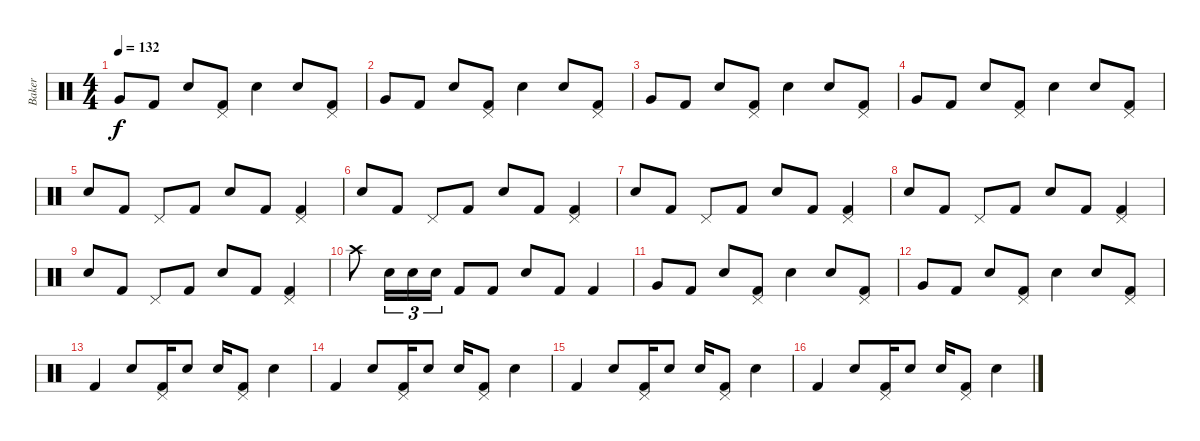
\track ("Baker" "Baker") {instrument percussion}
\staff {score}
\articulation defaults
\ts (4 4)
\tempo 132
\clef neutral
\ks c "Very Low Tom (hit)".8{dy f} "Kick (hit) 2".8 "Snare (hit) 2".8
("Pedal Hi-Hat (hit)" "Kick (hit) 2").8 "Snare (hit) 2".4 "Snare (hit) 2".8 ("Pedal Hi-Hat (hit)" "Kick (hit) 2").8 |
"Very Low Tom (hit)".8 "Kick (hit) 2".8 "Snare (hit) 2".8 ("Pedal Hi-Hat (hit)" "Kick (hit) 2").8 "Snare (hit) 2".4 "Snare (hit) 2".8 ("Pedal Hi-Hat (hit)" "Kick (hit) 2").8 |
"Very Low Tom (hit)".8 "Kick (hit) 2".8 "Snare (hit) 2".8 ("Pedal Hi-Hat (hit)" "Kick (hit) 2").8 "Snare (hit) 2".4 "Snare (hit) 2".8 ("Pedal Hi-Hat (hit)" "Kick (hit) 2").8 |
"Very Low Tom (hit)".8 "Kick (hit) 2".8 "Snare (hit) 2".8 ("Pedal Hi-Hat (hit)" "Kick (hit) 2").8 "Snare (hit) 2".4 "Snare (hit) 2".8 ("Pedal Hi-Hat (hit)" "Kick (hit) 2").8 |
"Snare (hit) 2".8 "Kick (hit) 2".8 "Pedal Hi-Hat (hit)".8 "Kick (hit) 2".8 "Snare (hit) 2".8 "Kick (hit) 2".8 ("Pedal Hi-Hat (hit)" "Kick (hit) 2").4 |
"Snare (hit) 2".8 "Kick (hit) 2".8 "Pedal Hi-Hat (hit)".8 "Kick (hit) 2".8 "Snare (hit) 2".8 "Kick (hit) 2".8 ("Pedal Hi-Hat (hit)" "Kick (hit) 2").4 |
"Snare (hit) 2".8 "Kick (hit) 2".8 "Pedal Hi-Hat (hit)".8 "Kick (hit) 2".8 "Snare (hit) 2".8 "Kick (hit) 2".8 ("Pedal Hi-Hat (hit)" "Kick (hit) 2").4 |
"Snare (hit) 2".8 "Kick (hit) 2".8 "Pedal Hi-Hat (hit)".8 "Kick (hit) 2".8 "Snare (hit) 2".8 "Kick (hit) 2".8 ("Pedal Hi-Hat (hit)" "Kick (hit) 2").4 |
"Snare (hit) 2".8 "Kick (hit) 2".8 "Pedal Hi-Hat (hit)".8 "Kick (hit) 2".8 "Snare (hit) 2".8 "Kick (hit) 2".8 ("Pedal Hi-Hat (hit)" "Kick (hit) 2").4 |
"Crash high (hit)".8 "Snare (hit) 2".16{tu (3 2)} "Snare (hit) 2".16{tu (3 2)} "Snare (hit) 2".16{tu (3 2)} "Kick (hit) 2".8 "Kick (hit) 2".8 "Snare (hit) 2".8 "Kick (hit) 2".8 "Kick (hit) 2".4 |
"Very Low Tom (hit)".8 "Kick (hit) 2".8 "Snare (hit) 2".8 ("Pedal Hi-Hat (hit)" "Kick (hit) 2").8 "Snare (hit) 2".4 "Snare (hit) 2".8 ("Pedal Hi-Hat (hit)" "Kick (hit) 2").8 |
"Very Low Tom (hit)".8 "Kick (hit) 2".8 "Snare (hit) 2".8 ("Pedal Hi-Hat (hit)" "Kick (hit) 2").8 "Snare (hit) 2".4 "Snare (hit) 2".8 ("Pedal Hi-Hat (hit)" "Kick (hit) 2").8 |
"Kick (hit) 2".4 "Snare (hit) 2".8 ("Pedal Hi-Hat (hit)" "Kick (hit) 2").16 "Snare (hit) 2".8 "Snare (hit) 2".16 ("Pedal Hi-Hat (hit)" "Kick (hit) 2").8 "Snare (hit) 2".4 |
"Kick (hit) 2".4 "Snare (hit) 2".8 ("Pedal Hi-Hat (hit)" "Kick (hit) 2").16 "Snare (hit) 2".8 "Snare (hit) 2".16 ("Pedal Hi-Hat (hit)" "Kick (hit) 2").8 "Snare (hit) 2".4 |
"Kick (hit) 2".4 "Snare (hit) 2".8 ("Pedal Hi-Hat (hit)" "Kick (hit) 2").16 "Snare (hit) 2".8 "Snare (hit) 2".16 ("Pedal Hi-Hat (hit)" "Kick (hit) 2").8 "Snare (hit) 2".4 |
"Kick (hit) 2".4 "Snare (hit) 2".8 ("Pedal Hi-Hat (hit)" "Kick (hit) 2").16 "Snare (hit) 2".8 "Snare (hit) 2".16 ("Pedal Hi-Hat (hit)" "Kick (hit) 2").8 "Snare (hit) 2".4
